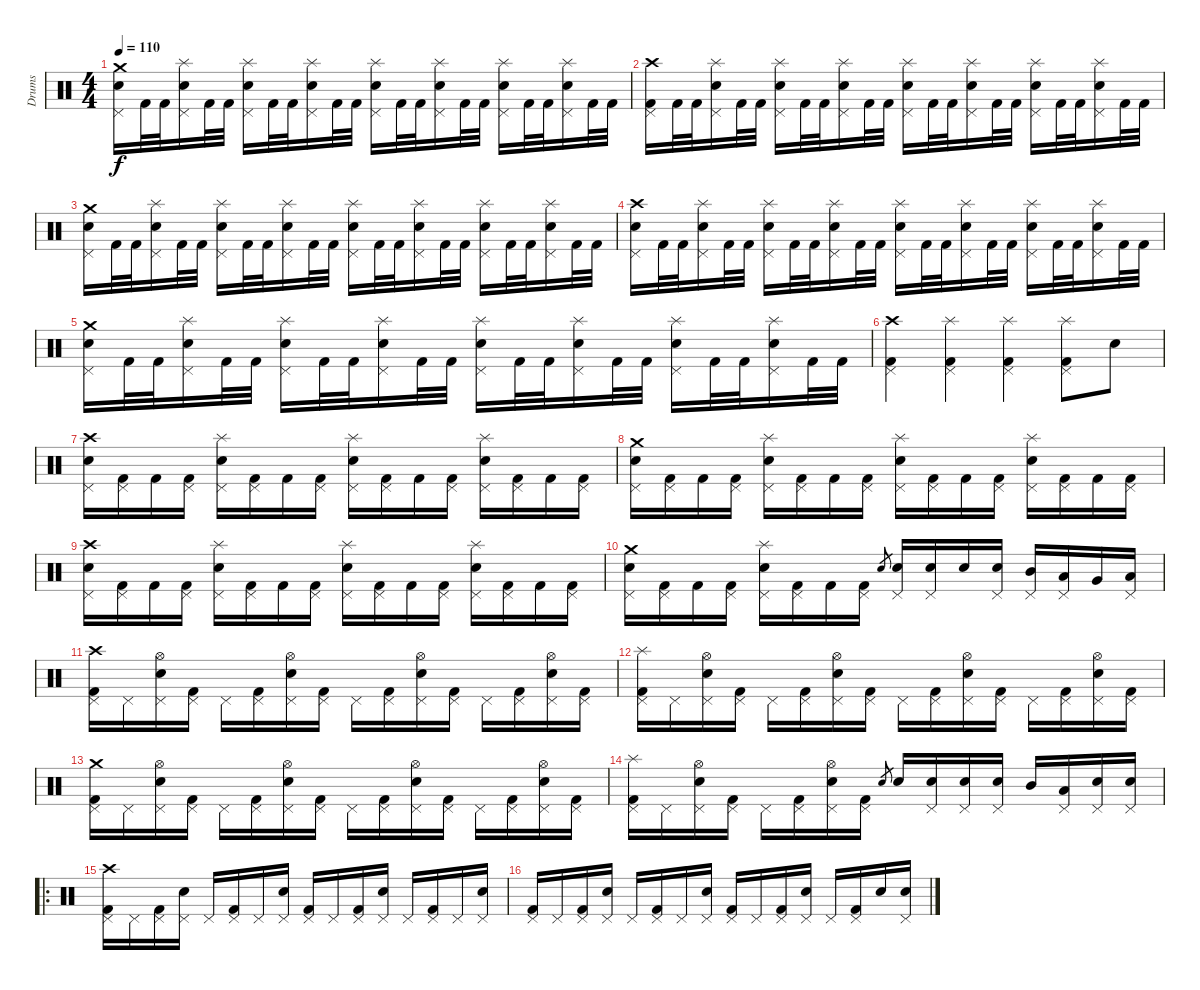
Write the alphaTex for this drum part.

\track ("Drums" "Drums") {instrument percussion}
\staff {score}
\articulation defaults
\ts (4 4)
\tempo 110
\clef neutral
\ks c
("Snare (hit) 2" "Pedal Hi-Hat (hit)" "Crash medium (hit)").16{dy f} "Kick (hit) 2".32 "Kick (hit) 2".32 ("Snare (hit) 2" "Pedal Hi-Hat (hit)" "Splash (hit)").16 "Kick (hit) 2".32 "Kick (hit) 2".32 ("Snare (hit) 2" "Pedal Hi-Hat (hit)" "Splash (hit)").16 "Kick (hit) 2".32 "Kick (hit) 2".32 ("Snare (hit) 2" "Pedal Hi-Hat (hit)" "Splash (hit)").16 "Kick (hit) 2".32 "Kick (hit) 2".32 ("Snare (hit) 2" "Pedal Hi-Hat (hit)" "Splash (hit)").16 "Kick (hit) 2".32 "Kick (hit) 2".32 ("Snare (hit) 2" "Pedal Hi-Hat (hit)" "Splash (hit)").16 "Kick (hit) 2".32 "Kick (hit) 2".32 ("Snare (hit) 2" "Pedal Hi-Hat (hit)" "Splash (hit)").16 "Kick (hit) 2".32 "Kick (hit) 2".32 ("Snare (hit) 2" "Pedal Hi-Hat (hit)" "Splash (hit)").16 "Kick (hit) 2".32 "Kick (hit) 2".32 |
("Kick (hit) 2" "Pedal Hi-Hat (hit)" "Crash high (hit)").16 "Kick (hit) 2".32 "Kick (hit) 2".32 ("Snare (hit) 2" "Pedal Hi-Hat (hit)" "Splash (hit)").16 "Kick (hit) 2".32 "Kick (hit) 2".32 ("Snare (hit) 2" "Pedal Hi-Hat (hit)" "Splash (hit)").16 "Kick (hit) 2".32 "Kick (hit) 2".32 ("Snare (hit) 2" "Pedal Hi-Hat (hit)" "Splash (hit)").16 "Kick (hit) 2".32 "Kick (hit) 2".32 ("Snare (hit) 2" "Pedal Hi-Hat (hit)" "Splash (hit)").16 "Kick (hit) 2".32 "Kick (hit) 2".32 ("Snare (hit) 2" "Pedal Hi-Hat (hit)" "Splash (hit)").16 "Kick (hit) 2".32 "Kick (hit) 2".32 ("Snare (hit) 2" "Pedal Hi-Hat (hit)" "Splash (hit)").16 "Kick (hit) 2".32 "Kick (hit) 2".32 ("Snare (hit) 2" "Pedal Hi-Hat (hit)" "Splash (hit)").16 "Kick (hit) 2".32 "Kick (hit) 2".32 |
("Snare (hit) 2" "Pedal Hi-Hat (hit)" "Crash medium (hit)").16 "Kick (hit) 2".32 "Kick (hit) 2".32 ("Snare (hit) 2" "Pedal Hi-Hat (hit)" "Splash (hit)").16 "Kick (hit) 2".32 "Kick (hit) 2".32 ("Snare (hit) 2" "Pedal Hi-Hat (hit)" "Splash (hit)").16 "Kick (hit) 2".32 "Kick (hit) 2".32 ("Snare (hit) 2" "Pedal Hi-Hat (hit)" "Splash (hit)").16 "Kick (hit) 2".32 "Kick (hit) 2".32 ("Snare (hit) 2" "Pedal Hi-Hat (hit)" "Splash (hit)").16 "Kick (hit) 2".32 "Kick (hit) 2".32 ("Snare (hit) 2" "Pedal Hi-Hat (hit)" "Splash (hit)").16 "Kick (hit) 2".32 "Kick (hit) 2".32 ("Snare (hit) 2" "Pedal Hi-Hat (hit)" "Splash (hit)").16 "Kick (hit) 2".32 "Kick (hit) 2".32 ("Snare (hit) 2" "Pedal Hi-Hat (hit)" "Splash (hit)").16 "Kick (hit) 2".32 "Kick (hit) 2".32 |
("Snare (hit) 2" "Pedal Hi-Hat (hit)" "Crash high (hit)").16 "Kick (hit) 2".32 "Kick (hit) 2".32 ("Snare (hit) 2" "Pedal Hi-Hat (hit)" "Splash (hit)").16 "Kick (hit) 2".32 "Kick (hit) 2".32 ("Snare (hit) 2" "Pedal Hi-Hat (hit)" "Splash (hit)").16 "Kick (hit) 2".32 "Kick (hit) 2".32 ("Snare (hit) 2" "Pedal Hi-Hat (hit)" "Splash (hit)").16 "Kick (hit) 2".32 "Kick (hit) 2".32 ("Snare (hit) 2" "Pedal Hi-Hat (hit)" "Splash (hit)").16 "Kick (hit) 2".32 "Kick (hit) 2".32 ("Snare (hit) 2" "Pedal Hi-Hat (hit)" "Splash (hit)").16 "Kick (hit) 2".32 "Kick (hit) 2".32 ("Snare (hit) 2" "Pedal Hi-Hat (hit)" "Splash (hit)").16 "Kick (hit) 2".32 "Kick (hit) 2".32 ("Snare (hit) 2" "Pedal Hi-Hat (hit)" "Splash (hit)").16 "Kick (hit) 2".32 "Kick (hit) 2".32 |
("Snare (hit) 2" "Pedal Hi-Hat (hit)" "Crash medium (hit)").16 "Kick (hit) 2".32 "Kick (hit) 2".32 ("Snare (hit) 2" "Pedal Hi-Hat (hit)" "Splash (hit)").16 "Kick (hit) 2".32 "Kick (hit) 2".32 ("Snare (hit) 2" "Pedal Hi-Hat (hit)" "Splash (hit)").16 "Kick (hit) 2".32 "Kick (hit) 2".32 ("Snare (hit) 2" "Pedal Hi-Hat (hit)" "Splash (hit)").16 "Kick (hit) 2".32 "Kick (hit) 2".32 ("Snare (hit) 2" "Pedal Hi-Hat (hit)" "Splash (hit)").16 "Kick (hit) 2".32 "Kick (hit) 2".32 ("Snare (hit) 2" "Pedal Hi-Hat (hit)" "Splash (hit)").16 "Kick (hit) 2".32 "Kick (hit) 2".32 ("Snare (hit) 2" "Pedal Hi-Hat (hit)" "Splash (hit)").16 "Kick (hit) 2".32 "Kick (hit) 2".32 ("Snare (hit) 2" "Pedal Hi-Hat (hit)" "Splash (hit)").16 "Kick (hit) 2".32 "Kick (hit) 2".32 |
("Kick (hit) 2" "Pedal Hi-Hat (hit)" "Crash high (hit)").4 ("Kick (hit) 2" "Pedal Hi-Hat (hit)" "Splash (hit)").4 ("Kick (hit) 2" "Pedal Hi-Hat (hit)" "Splash (hit)").4 ("Kick (hit) 2" "Pedal Hi-Hat (hit)" "Splash (hit)").8 "Snare (hit) 2".8 |
("Snare (hit) 2" "Pedal Hi-Hat (hit)" "Crash high (hit)").16 ("Kick (hit) 2" "Pedal Hi-Hat (hit)").16 "Kick (hit) 2".16 ("Kick (hit) 2" "Pedal Hi-Hat (hit)").16 ("Snare (hit) 2" "Pedal Hi-Hat (hit)" "Splash (hit)").16 ("Kick (hit) 2" "Pedal Hi-Hat (hit)").16 "Kick (hit) 2".16 ("Kick (hit) 2" "Pedal Hi-Hat (hit)").16 ("Snare (hit) 2" "Pedal Hi-Hat (hit)" "Splash (hit)").16 ("Kick (hit) 2" "Pedal Hi-Hat (hit)").16 "Kick (hit) 2".16 ("Kick (hit) 2" "Pedal Hi-Hat (hit)").16 ("Snare (hit) 2" "Pedal Hi-Hat (hit)" "Splash (hit)").16 ("Kick (hit) 2" "Pedal Hi-Hat (hit)").16 "Kick (hit) 2".16 ("Kick (hit) 2" "Pedal Hi-Hat (hit)").16 |
("Snare (hit) 2" "Pedal Hi-Hat (hit)" "Crash medium (hit)").16 ("Kick (hit) 2" "Pedal Hi-Hat (hit)").16 "Kick (hit) 2".16 ("Kick (hit) 2" "Pedal Hi-Hat (hit)").16 ("Snare (hit) 2" "Pedal Hi-Hat (hit)" "Splash (hit)").16 ("Kick (hit) 2" "Pedal Hi-Hat (hit)").16 "Kick (hit) 2".16 ("Kick (hit) 2" "Pedal Hi-Hat (hit)").16 ("Snare (hit) 2" "Pedal Hi-Hat (hit)" "Splash (hit)").16 ("Kick (hit) 2" "Pedal Hi-Hat (hit)").16 "Kick (hit) 2".16 ("Kick (hit) 2" "Pedal Hi-Hat (hit)").16 ("Snare (hit) 2" "Pedal Hi-Hat (hit)" "Splash (hit)").16 ("Kick (hit) 2" "Pedal Hi-Hat (hit)").16 "Kick (hit) 2".16 ("Kick (hit) 2" "Pedal Hi-Hat (hit)").16 |
("Snare (hit) 2" "Pedal Hi-Hat (hit)" "Crash high (hit)").16 ("Kick (hit) 2" "Pedal Hi-Hat (hit)").16 "Kick (hit) 2".16 ("Kick (hit) 2" "Pedal Hi-Hat (hit)").16 ("Snare (hit) 2" "Pedal Hi-Hat (hit)" "Splash (hit)").16 ("Kick (hit) 2" "Pedal Hi-Hat (hit)").16 "Kick (hit) 2".16 ("Kick (hit) 2" "Pedal Hi-Hat (hit)").16 ("Snare (hit) 2" "Pedal Hi-Hat (hit)" "Splash (hit)").16 ("Kick (hit) 2" "Pedal Hi-Hat (hit)").16 "Kick (hit) 2".16 ("Kick (hit) 2" "Pedal Hi-Hat (hit)").16 ("Snare (hit) 2" "Pedal Hi-Hat (hit)" "Splash (hit)").16 ("Kick (hit) 2" "Pedal Hi-Hat (hit)").16 "Kick (hit) 2".16 ("Kick (hit) 2" "Pedal Hi-Hat (hit)").16 |
("Snare (hit) 2" "Pedal Hi-Hat (hit)" "Crash medium (hit)").16 ("Kick (hit) 2" "Pedal Hi-Hat (hit)").16 "Kick (hit) 2".16 ("Kick (hit) 2" "Pedal Hi-Hat (hit)").16 ("Snare (hit) 2" "Pedal Hi-Hat (hit)" "Splash (hit)").16 ("Kick (hit) 2" "Pedal Hi-Hat (hit)").16 "Kick (hit) 2".16 ("Kick (hit) 2" "Pedal Hi-Hat (hit)").16 "Snare (hit) 2".8{gr} ("Snare (hit) 2" "Pedal Hi-Hat (hit)").16 ("Snare (hit) 2" "Pedal Hi-Hat (hit)").16 "Snare (hit) 2".16 ("Snare (hit) 2" "Pedal Hi-Hat (hit)").16 ("Mid Tom (hit)" "Pedal Hi-Hat (hit)").16 ("Low Tom (hit)" "Pedal Hi-Hat (hit)").16 "Very Low Tom (hit)".16 ("Low Floor Tom (hit)" "Pedal Hi-Hat (hit)").16 |
("Kick (hit) 2" "Pedal Hi-Hat (hit)" "Crash high (hit)").16 "Pedal Hi-Hat (hit)".16 ("Snare (hit) 2" "Pedal Hi-Hat (hit)" "Hi-Hat (open)").16 ("Kick (hit) 2" "Pedal Hi-Hat (hit)").16 "Pedal Hi-Hat (hit)".16 ("Kick (hit) 2" "Pedal Hi-Hat (hit)").16 ("Snare (hit) 2" "Pedal Hi-Hat (hit)" "Hi-Hat (open)").16 ("Kick (hit) 2" "Pedal Hi-Hat (hit)").16 "Pedal Hi-Hat (hit)".16 ("Kick (hit) 2" "Pedal Hi-Hat (hit)").16 ("Snare (hit) 2" "Pedal Hi-Hat (hit)" "Hi-Hat (open)").16 ("Kick (hit) 2" "Pedal Hi-Hat (hit)").16 "Pedal Hi-Hat (hit)".16 ("Kick (hit) 2" "Pedal Hi-Hat (hit)").16 ("Snare (hit) 2" "Pedal Hi-Hat (hit)" "Hi-Hat (open)").16 ("Kick (hit) 2" "Pedal Hi-Hat (hit)").16 |
("Kick (hit) 2" "Pedal Hi-Hat (hit)" "Splash (hit)").16 "Pedal Hi-Hat (hit)".16 ("Snare (hit) 2" "Pedal Hi-Hat (hit)" "Hi-Hat (open)").16 ("Kick (hit) 2" "Pedal Hi-Hat (hit)").16 "Pedal Hi-Hat (hit)".16 ("Kick (hit) 2" "Pedal Hi-Hat (hit)").16 ("Snare (hit) 2" "Pedal Hi-Hat (hit)" "Hi-Hat (open)").16 ("Kick (hit) 2" "Pedal Hi-Hat (hit)").16 "Pedal Hi-Hat (hit)".16 ("Kick (hit) 2" "Pedal Hi-Hat (hit)").16 ("Snare (hit) 2" "Pedal Hi-Hat (hit)" "Hi-Hat (open)").16 ("Kick (hit) 2" "Pedal Hi-Hat (hit)").16 "Pedal Hi-Hat (hit)".16 ("Kick (hit) 2" "Pedal Hi-Hat (hit)").16 ("Snare (hit) 2" "Pedal Hi-Hat (hit)" "Hi-Hat (open)").16 ("Kick (hit) 2" "Pedal Hi-Hat (hit)").16 |
("Kick (hit) 2" "Pedal Hi-Hat (hit)" "Crash medium (hit)").16 "Pedal Hi-Hat (hit)".16 ("Snare (hit) 2" "Pedal Hi-Hat (hit)" "Hi-Hat (open)").16 ("Kick (hit) 2" "Pedal Hi-Hat (hit)").16 "Pedal Hi-Hat (hit)".16 ("Kick (hit) 2" "Pedal Hi-Hat (hit)").16 ("Snare (hit) 2" "Pedal Hi-Hat (hit)" "Hi-Hat (open)").16 ("Kick (hit) 2" "Pedal Hi-Hat (hit)").16 "Pedal Hi-Hat (hit)".16 ("Kick (hit) 2" "Pedal Hi-Hat (hit)").16 ("Snare (hit) 2" "Pedal Hi-Hat (hit)" "Hi-Hat (open)").16 ("Kick (hit) 2" "Pedal Hi-Hat (hit)").16 "Pedal Hi-Hat (hit)".16 ("Kick (hit) 2" "Pedal Hi-Hat (hit)").16 ("Snare (hit) 2" "Pedal Hi-Hat (hit)" "Hi-Hat (open)").16 ("Kick (hit) 2" "Pedal Hi-Hat (hit)").16 |
("Kick (hit) 2" "Pedal Hi-Hat (hit)" "Splash (hit)").16 "Pedal Hi-Hat (hit)".16 ("Snare (hit) 2" "Pedal Hi-Hat (hit)" "Hi-Hat (open)").16 ("Kick (hit) 2" "Pedal Hi-Hat (hit)").16 "Pedal Hi-Hat (hit)".16 ("Kick (hit) 2" "Pedal Hi-Hat (hit)").16 ("Snare (hit) 2" "Pedal Hi-Hat (hit)" "Hi-Hat (open)").16 ("Kick (hit) 2" "Pedal Hi-Hat (hit)").16 "Snare (hit) 2".8{gr} "Snare (hit) 2".16 ("Snare (hit) 2" "Pedal Hi-Hat (hit)").16 ("Snare (hit) 2" "Pedal Hi-Hat (hit)").16 ("Snare (hit) 2" "Pedal Hi-Hat (hit)").16 "Mid Tom (hit)".16 ("Low Tom (hit)" "Pedal Hi-Hat (hit)").16 ("Snare (hit) 2" "Pedal Hi-Hat (hit)").16 ("Snare (hit) 2" "Pedal Hi-Hat (hit)").16 |
\ro
("Kick (hit) 2" "Pedal Hi-Hat (hit)" "Crash high (hit)").16 "Pedal Hi-Hat (hit)".16 ("Kick (hit) 2" "Pedal Hi-Hat (hit)").16 ("Snare (hit) 2" "Pedal Hi-Hat (hit)").16 "Pedal Hi-Hat (hit)".16 ("Kick (hit) 2" "Pedal Hi-Hat (hit)").16 "Pedal Hi-Hat (hit)".16 ("Snare (hit) 2" "Pedal Hi-Hat (hit)").16 ("Kick (hit) 2" "Pedal Hi-Hat (hit)").16 "Pedal Hi-Hat (hit)".16 ("Kick (hit) 2" "Pedal Hi-Hat (hit)").16 ("Snare (hit) 2" "Pedal Hi-Hat (hit)").16 "Pedal Hi-Hat (hit)".16 ("Kick (hit) 2" "Pedal Hi-Hat (hit)").16 "Pedal Hi-Hat (hit)".16 ("Snare (hit) 2" "Pedal Hi-Hat (hit)").16 |
("Kick (hit) 2" "Pedal Hi-Hat (hit)").16 "Pedal Hi-Hat (hit)".16 ("Kick (hit) 2" "Pedal Hi-Hat (hit)").16 ("Snare (hit) 2" "Pedal Hi-Hat (hit)").16 "Pedal Hi-Hat (hit)".16 ("Kick (hit) 2" "Pedal Hi-Hat (hit)").16 "Pedal Hi-Hat (hit)".16 ("Snare (hit) 2" "Pedal Hi-Hat (hit)").16 ("Kick (hit) 2" "Pedal Hi-Hat (hit)").16 "Pedal Hi-Hat (hit)".16 ("Kick (hit) 2" "Pedal Hi-Hat (hit)").16 ("Snare (hit) 2" "Pedal Hi-Hat (hit)").16 "Pedal Hi-Hat (hit)".16 ("Kick (hit) 2" "Pedal Hi-Hat (hit)").16 "Snare (hit) 2".16 ("Snare (hit) 2" "Pedal Hi-Hat (hit)").16
